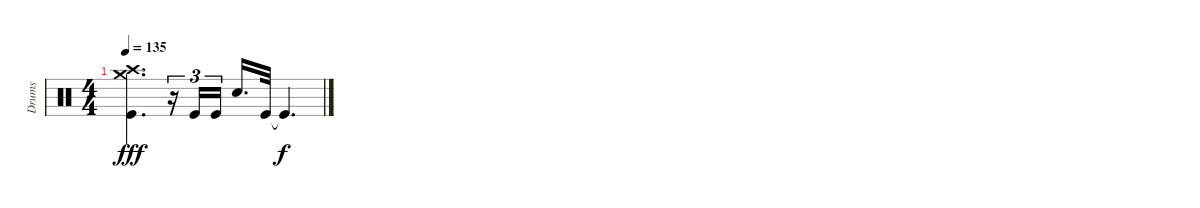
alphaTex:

\track ("Drums" "Drums") {instrument percussion}
\staff {score}
\articulation defaults
\ts (4 4)
\tempo 135
\clef neutral
\ks c
("Crash medium (hit)" "Crash high (hit)" "Kick (hit)").4{d dy fff} r.16{tu (3 2)} "Kick (hit)".16{tu (3 2)} "Kick (hit)".16{tu (3 2)} "Snare (hit) 2".16{d} "Kick (hit)".32 "Kick (hit)"{t}.4{d dy f}
